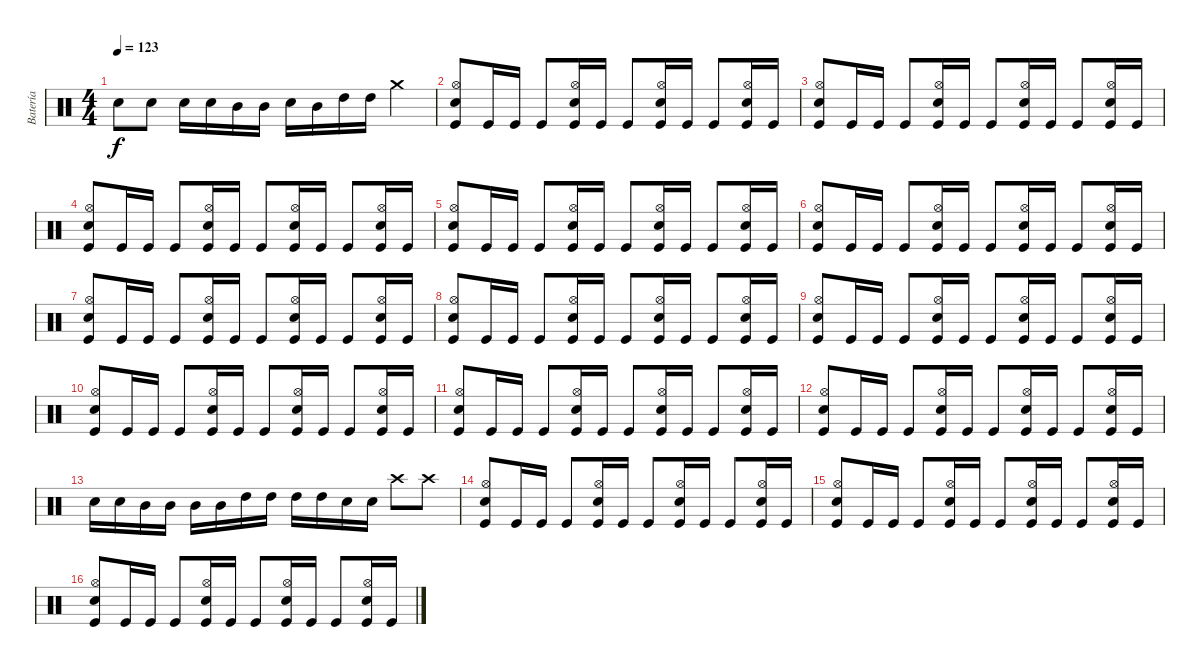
\track ("Batería" "Batería") {instrument percussion}
\staff {score}
\articulation defaults
\ts (4 4)
\tempo 123
\clef neutral
\ks c "Snare (hit) 2".8{dy f} "Snare (hit) 2".8 "Snare (hit) 2".16 "Snare (hit) 2".16 "Mid Tom (hit)".16 "Mid Tom (hit)".16 "Snare (hit) 2".16 "Mid Tom (hit)".16 "High Tom (hit)".16 "High Tom (hit)".16 "Crash medium (hit)".4
|
("Hi-Hat (open)" "Snare (hit) 2" "Kick (hit)").8 "Kick (hit)".16 "Kick (hit)".16 "Kick (hit)".8 ("Hi-Hat (open)" "Snare (hit) 2" "Kick (hit)").16 "Kick (hit)".16 "Kick (hit)".8 ("Hi-Hat (open)" "Snare (hit) 2" "Kick (hit)").16 "Kick (hit)".16 "Kick (hit)".8 ("Hi-Hat (open)" "Snare (hit) 2" "Kick (hit)").16 "Kick (hit)".16 |
("Hi-Hat (open)" "Snare (hit) 2" "Kick (hit)").8 "Kick (hit)".16 "Kick (hit)".16 "Kick (hit)".8 ("Hi-Hat (open)" "Snare (hit) 2" "Kick (hit)").16 "Kick (hit)".16 "Kick (hit)".8 ("Hi-Hat (open)" "Snare (hit) 2" "Kick (hit)").16 "Kick (hit)".16 "Kick (hit)".8 ("Hi-Hat (open)" "Snare (hit) 2" "Kick (hit)").16 "Kick (hit)".16 |
("Hi-Hat (open)" "Snare (hit) 2" "Kick (hit)").8 "Kick (hit)".16 "Kick (hit)".16 "Kick (hit)".8 ("Hi-Hat (open)" "Snare (hit) 2" "Kick (hit)").16 "Kick (hit)".16 "Kick (hit)".8 ("Hi-Hat (open)" "Snare (hit) 2" "Kick (hit)").16 "Kick (hit)".16 "Kick (hit)".8 ("Hi-Hat (open)" "Snare (hit) 2" "Kick (hit)").16 "Kick (hit)".16 |
("Hi-Hat (open)" "Snare (hit) 2" "Kick (hit)").8 "Kick (hit)".16 "Kick (hit)".16 "Kick (hit)".8 ("Hi-Hat (open)" "Snare (hit) 2" "Kick (hit)").16 "Kick (hit)".16 "Kick (hit)".8 ("Hi-Hat (open)" "Snare (hit) 2" "Kick (hit)").16 "Kick (hit)".16 "Kick (hit)".8 ("Hi-Hat (open)" "Snare (hit) 2" "Kick (hit)").16 "Kick (hit)".16 |
("Hi-Hat (open)" "Snare (hit) 2" "Kick (hit)").8 "Kick (hit)".16 "Kick (hit)".16 "Kick (hit)".8 ("Hi-Hat (open)" "Snare (hit) 2" "Kick (hit)").16 "Kick (hit)".16 "Kick (hit)".8 ("Hi-Hat (open)" "Snare (hit) 2" "Kick (hit)").16 "Kick (hit)".16 "Kick (hit)".8 ("Hi-Hat (open)" "Snare (hit) 2" "Kick (hit)").16 "Kick (hit)".16 |
("Hi-Hat (open)" "Snare (hit) 2" "Kick (hit)").8 "Kick (hit)".16 "Kick (hit)".16 "Kick (hit)".8 ("Hi-Hat (open)" "Snare (hit) 2" "Kick (hit)").16 "Kick (hit)".16 "Kick (hit)".8 ("Hi-Hat (open)" "Snare (hit) 2" "Kick (hit)").16 "Kick (hit)".16 "Kick (hit)".8 ("Hi-Hat (open)" "Snare (hit) 2" "Kick (hit)").16 "Kick (hit)".16 |
("Hi-Hat (open)" "Snare (hit) 2" "Kick (hit)").8 "Kick (hit)".16 "Kick (hit)".16 "Kick (hit)".8 ("Hi-Hat (open)" "Snare (hit) 2" "Kick (hit)").16 "Kick (hit)".16 "Kick (hit)".8 ("Hi-Hat (open)" "Snare (hit) 2" "Kick (hit)").16 "Kick (hit)".16 "Kick (hit)".8 ("Hi-Hat (open)" "Snare (hit) 2" "Kick (hit)").16 "Kick (hit)".16 |
("Hi-Hat (open)" "Snare (hit) 2" "Kick (hit)").8 "Kick (hit)".16 "Kick (hit)".16 "Kick (hit)".8 ("Hi-Hat (open)" "Snare (hit) 2" "Kick (hit)").16 "Kick (hit)".16 "Kick (hit)".8 ("Hi-Hat (open)" "Snare (hit) 2" "Kick (hit)").16 "Kick (hit)".16 "Kick (hit)".8 ("Hi-Hat (open)" "Snare (hit) 2" "Kick (hit)").16 "Kick (hit)".16 |
("Hi-Hat (open)" "Snare (hit) 2" "Kick (hit)").8 "Kick (hit)".16 "Kick (hit)".16 "Kick (hit)".8 ("Hi-Hat (open)" "Snare (hit) 2" "Kick (hit)").16 "Kick (hit)".16 "Kick (hit)".8 ("Hi-Hat (open)" "Snare (hit) 2" "Kick (hit)").16 "Kick (hit)".16 "Kick (hit)".8 ("Hi-Hat (open)" "Snare (hit) 2" "Kick (hit)").16 "Kick (hit)".16 |
("Hi-Hat (open)" "Snare (hit) 2" "Kick (hit)").8 "Kick (hit)".16 "Kick (hit)".16 "Kick (hit)".8 ("Hi-Hat (open)" "Snare (hit) 2" "Kick (hit)").16 "Kick (hit)".16 "Kick (hit)".8 ("Hi-Hat (open)" "Snare (hit) 2" "Kick (hit)").16 "Kick (hit)".16 "Kick (hit)".8 ("Hi-Hat (open)" "Snare (hit) 2" "Kick (hit)").16 "Kick (hit)".16 |
("Hi-Hat (open)" "Snare (hit) 2" "Kick (hit)").8 "Kick (hit)".16 "Kick (hit)".16 "Kick (hit)".8 ("Hi-Hat (open)" "Snare (hit) 2" "Kick (hit)").16 "Kick (hit)".16 "Kick (hit)".8 ("Hi-Hat (open)" "Snare (hit) 2" "Kick (hit)").16 "Kick (hit)".16 "Kick (hit)".8 ("Hi-Hat (open)" "Snare (hit) 2" "Kick (hit)").16 "Kick (hit)".16 |
"Snare (hit) 2".16 "Snare (hit) 2".16 "Mid Tom (hit)".16 "Mid Tom (hit)".16 "Mid Tom (hit)".16 "Mid Tom (hit)".16 "High Tom (hit)".16 "High Tom (hit)".16 "High Tom (hit)".16 "High Tom (hit)".16 "Snare (hit) 2".16 "Snare (hit) 2".16 "Crash high (hit)".8 "Crash high (hit)".8 |
("Hi-Hat (open)" "Snare (hit) 2" "Kick (hit)").8 "Kick (hit)".16 "Kick (hit)".16 "Kick (hit)".8 ("Hi-Hat (open)" "Snare (hit) 2" "Kick (hit)").16 "Kick (hit)".16 "Kick (hit)".8 ("Hi-Hat (open)" "Snare (hit) 2" "Kick (hit)").16 "Kick (hit)".16 "Kick (hit)".8 ("Hi-Hat (open)" "Snare (hit) 2" "Kick (hit)").16 "Kick (hit)".16 |
("Hi-Hat (open)" "Snare (hit) 2" "Kick (hit)").8 "Kick (hit)".16 "Kick (hit)".16 "Kick (hit)".8 ("Hi-Hat (open)" "Snare (hit) 2" "Kick (hit)").16 "Kick (hit)".16 "Kick (hit)".8 ("Hi-Hat (open)" "Snare (hit) 2" "Kick (hit)").16 "Kick (hit)".16 "Kick (hit)".8 ("Hi-Hat (open)" "Snare (hit) 2" "Kick (hit)").16 "Kick (hit)".16 |
("Hi-Hat (open)" "Snare (hit) 2" "Kick (hit)").8 "Kick (hit)".16 "Kick (hit)".16 "Kick (hit)".8 ("Hi-Hat (open)" "Snare (hit) 2" "Kick (hit)").16 "Kick (hit)".16 "Kick (hit)".8 ("Hi-Hat (open)" "Snare (hit) 2" "Kick (hit)").16 "Kick (hit)".16 "Kick (hit)".8 ("Hi-Hat (open)" "Snare (hit) 2" "Kick (hit)").16 "Kick (hit)".16
